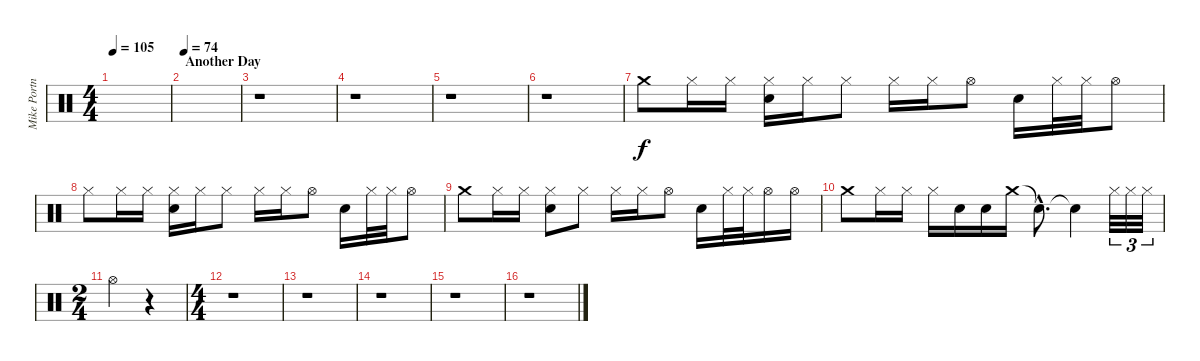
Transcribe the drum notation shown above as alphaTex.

\track ("Mike Portnoy" "Mike Portn") {instrument percussion}
\staff {score}
\articulation defaults
\ts (4 4)
\tempo 105
\clef neutral
\ks c
|
\section ("" "Another Day")
\tempo 74
|
r.1 |
r.1 |
r.1 |
r.1 |
"Crash medium (hit)".8 "Hi-Hat (closed)".16 "Hi-Hat (closed)".16 ("Hi-Hat (closed)" "Electric Snare (hit)").16 "Hi-Hat (closed)".16 "Hi-Hat (closed)".8 "Hi-Hat (closed)".16 "Hi-Hat (closed)".16 "Hi-Hat (open)".8 "Electric Snare (hit)".16 "Hi-Hat (closed)".32 "Hi-Hat (closed)".32 "Hi-Hat (open)".8 |
"Hi-Hat (closed)".8 "Hi-Hat (closed)".16 "Hi-Hat (closed)".16 ("Hi-Hat (closed)" "Electric Snare (hit)").16 "Hi-Hat (closed)".16 "Hi-Hat (closed)".8 "Hi-Hat (closed)".16 "Hi-Hat (closed)".16 "Hi-Hat (open)".8 "Electric Snare (hit)".16 "Hi-Hat (closed)".32 "Hi-Hat (closed)".32 "Hi-Hat (open)".8 |
"Crash medium (hit)".8 "Hi-Hat (closed)".16 "Hi-Hat (closed)".16 ("Hi-Hat (closed)" "Electric Snare (hit)").8 "Hi-Hat (closed)".8 "Hi-Hat (closed)".16 "Hi-Hat (closed)".16 "Hi-Hat (open)".8 "Electric Snare (hit)".16 "Hi-Hat (closed)".32 "Hi-Hat (closed)".32 "Hi-Hat (open)".16 "Hi-Hat (open)".16 |
"Crash medium (hit)".8 "Hi-Hat (closed)".16 "Hi-Hat (closed)".16 "Hi-Hat (closed)".16 "Electric Snare (hit)".16 "Electric Snare (hit)".16 "Crash medium (hit)".16 "Snare (hit)"{hac t}.8{d} "Snare (hit)"{t}.4 "Hi-Hat (closed)".32{tu (3 2)} "Hi-Hat (closed)".32{tu (3 2)} "Hi-Hat (closed)".32{tu (3 2)} |
\ts (2 4)
"Hi-Hat (open)".4 r.4 |
\ts (4 4)
r.1 |
r.1 |
r.1 |
r.1 |
r.1
